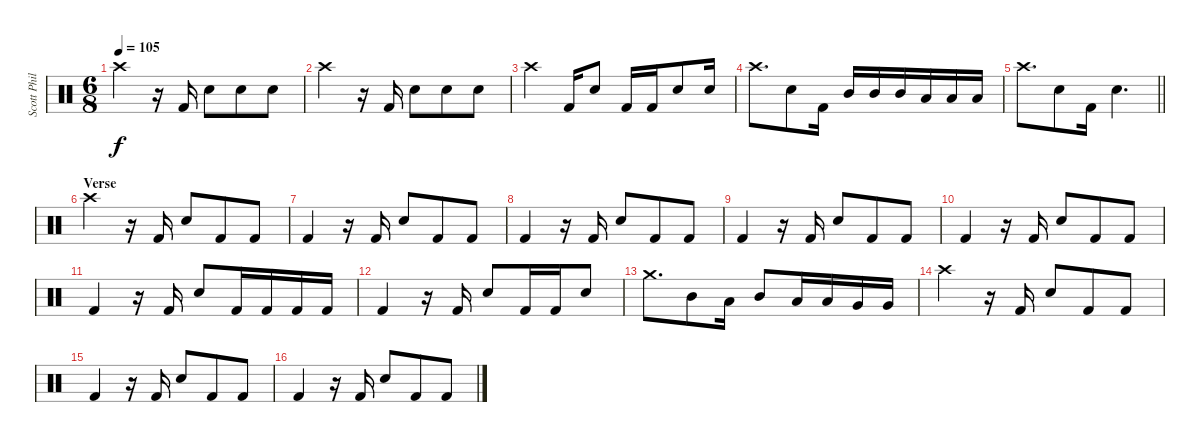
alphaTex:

\track ("Scott Phillips (Drums)" "Scott Phil") {instrument percussion}
\staff {score}
\articulation defaults
\ts (6 8)
\tempo 105
\clef neutral
\ks c "Crash high (hit)".4{dy f}
r.16 "Kick (hit) 2".16 "Electric Snare (hit)".8 "Electric Snare (hit)".8 "Electric Snare (hit)".8 |
"Crash high (hit)".4 r.16 "Kick (hit) 2".16 "Electric Snare (hit)".8 "Electric Snare (hit)".8 "Electric Snare (hit)".8 |
"Crash high (hit)".4 "Kick (hit) 2".16 "Electric Snare (hit)".8 "Kick (hit) 2".16 "Kick (hit) 2".16 "Electric Snare (hit)".8 "Electric Snare (hit)".16 |
"Crash high (hit)".8{d} "Electric Snare (hit)".8 "Kick (hit) 2".16 "Mid Tom (hit)".16 "Mid Tom (hit)".16 "Mid Tom (hit)".16 "Low Tom (hit)".16 "Low Tom (hit)".16 "Low Tom (hit)".16 |
\barLineRight lightlight "Crash high (hit)".8{d} "Electric Snare (hit)".8 "Kick (hit) 2".16 "Electric Snare (hit)".4{d}
|
\section ("" "Verse")
"Crash high (hit)".4 r.16 "Kick (hit) 2".16 "Electric Snare (hit)".8 "Kick (hit) 2".8 "Kick (hit) 2".8 |
"Kick (hit) 2".4 r.16 "Kick (hit) 2".16 "Electric Snare (hit)".8 "Kick (hit) 2".8 "Kick (hit) 2".8 |
"Kick (hit) 2".4 r.16 "Kick (hit) 2".16 "Electric Snare (hit)".8 "Kick (hit) 2".8 "Kick (hit) 2".8 |
"Kick (hit) 2".4 r.16 "Kick (hit) 2".16 "Electric Snare (hit)".8 "Kick (hit) 2".8 "Kick (hit) 2".8 |
"Kick (hit) 2".4 r.16 "Kick (hit) 2".16 "Electric Snare (hit)".8 "Kick (hit) 2".8 "Kick (hit) 2".8 |
"Kick (hit) 2".4 r.16 "Kick (hit) 2".16 "Electric Snare (hit)".8 "Kick (hit) 2".16 "Kick (hit) 2".16 "Kick (hit) 2".16 "Kick (hit) 2".16 |
"Kick (hit) 2".4 r.16 "Kick (hit) 2".16 "Electric Snare (hit)".8 "Kick (hit) 2".16 "Kick (hit) 2".16 "Electric Snare (hit)".8 |
"Crash medium (hit)".8{d} "Mid Tom (hit)".8 "Low Tom (hit)".16 "Mid Tom (hit)".8 "Low Tom (hit)".16 "Low Tom (hit)".16 "Very Low Tom (hit)".16 "Very Low Tom (hit)".16 |
"Crash high (hit)".4 r.16 "Kick (hit) 2".16 "Electric Snare (hit)".8 "Kick (hit) 2".8 "Kick (hit) 2".8 |
"Kick (hit) 2".4 r.16 "Kick (hit) 2".16 "Electric Snare (hit)".8 "Kick (hit) 2".8 "Kick (hit) 2".8 |
"Kick (hit) 2".4 r.16 "Kick (hit) 2".16 "Electric Snare (hit)".8 "Kick (hit) 2".8 "Kick (hit) 2".8
